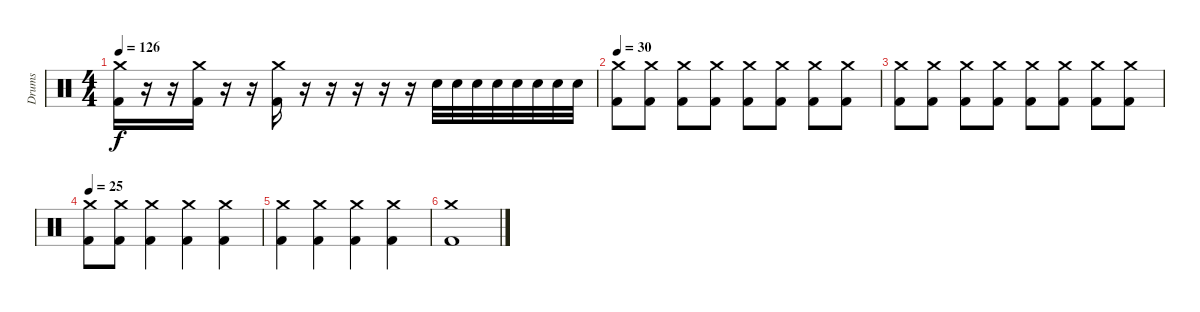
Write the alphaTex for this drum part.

\track ("Drums" "Drums") {instrument percussion}
\staff {score}
\articulation defaults
\ts (4 4)
\tempo 126
\clef neutral
\ks c
("Crash medium (hit)" "Kick (hit) 2").16{dy f} r.16 r.16 ("Crash medium (hit)" "Kick (hit) 2").16 r.16 r.16 ("Crash medium (hit)" "Kick (hit) 2").16 r.16 r.16 r.16 r.16 r.16 "Snare (hit) 2".32 "Snare (hit) 2".32 "Snare (hit) 2".32 "Snare (hit) 2".32 "Snare (hit) 2".32 "Snare (hit) 2".32 "Snare (hit) 2".32 "Snare (hit) 2".32 |
\tempo 30
("Crash medium (hit)" "Kick (hit) 2").8 ("Crash medium (hit)" "Kick (hit) 2").8 ("Crash medium (hit)" "Kick (hit) 2").8 ("Crash medium (hit)" "Kick (hit) 2").8 ("Crash medium (hit)" "Kick (hit) 2").8 ("Crash medium (hit)" "Kick (hit) 2").8 ("Crash medium (hit)" "Kick (hit) 2").8 ("Crash medium (hit)" "Kick (hit) 2").8 |
("Crash medium (hit)" "Kick (hit) 2").8 ("Crash medium (hit)" "Kick (hit) 2").8 ("Crash medium (hit)" "Kick (hit) 2").8 ("Crash medium (hit)" "Kick (hit) 2").8 ("Crash medium (hit)" "Kick (hit) 2").8 ("Crash medium (hit)" "Kick (hit) 2").8 ("Crash medium (hit)" "Kick (hit) 2").8 ("Crash medium (hit)" "Kick (hit) 2").8 |
\tempo 25
("Crash medium (hit)" "Kick (hit) 2").8 ("Crash medium (hit)" "Kick (hit) 2").8 ("Crash medium (hit)" "Kick (hit) 2").4 ("Crash medium (hit)" "Kick (hit) 2").4 ("Crash medium (hit)" "Kick (hit) 2").4 |
("Crash medium (hit)" "Kick (hit) 2").4 ("Crash medium (hit)" "Kick (hit) 2").4 ("Crash medium (hit)" "Kick (hit) 2").4 ("Crash medium (hit)" "Kick (hit) 2").4 |
("Crash medium (hit)" "Kick (hit) 2").1
